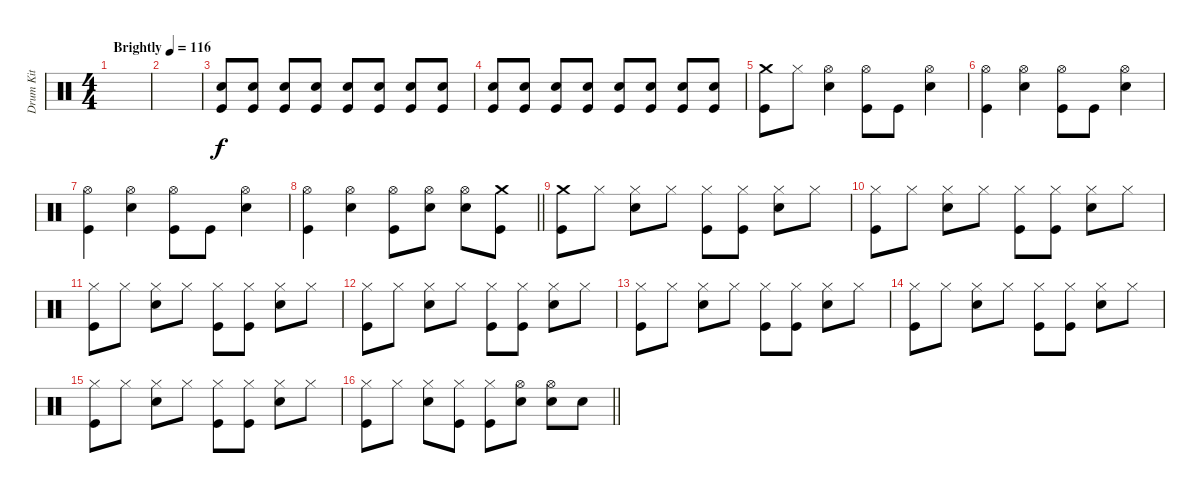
\track ("Drum Kit" "Drum Kit") {instrument percussion}
\staff {score}
\articulation defaults
\ts (4 4)
\tempo (116 "Brightly")
\clef neutral
\ks c
|
|
("Snare (hit) 2" "Kick (hit)").8{volume 10} ("Snare (hit) 2" "Kick (hit)").8 ("Snare (hit) 2" "Kick (hit)").8 ("Snare (hit) 2" "Kick (hit)").8 ("Snare (hit) 2" "Kick (hit)").8 ("Snare (hit) 2" "Kick (hit)").8 ("Snare (hit) 2" "Kick (hit)").8 ("Snare (hit) 2" "Kick (hit)").8 |
("Snare (hit) 2" "Kick (hit)").8 ("Snare (hit) 2" "Kick (hit)").8 ("Snare (hit) 2" "Kick (hit)").8 ("Snare (hit) 2" "Kick (hit)").8 ("Snare (hit) 2" "Kick (hit)").8 ("Snare (hit) 2" "Kick (hit)").8 ("Snare (hit) 2" "Kick (hit)").8 ("Snare (hit) 2" "Kick (hit)").8 |
("Crash medium (hit)" "Kick (hit)").8 "Hi-Hat (closed)".8 ("Hi-Hat (open)" "Snare (hit) 2").4 ("Hi-Hat (open)" "Kick (hit)").8 "Kick (hit)".8 ("Hi-Hat (open)" "Snare (hit) 2").4 |
("Hi-Hat (open)" "Kick (hit)").4 ("Hi-Hat (open)" "Snare (hit) 2").4 ("Hi-Hat (open)" "Kick (hit)").8 "Kick (hit)".8 ("Hi-Hat (open)" "Snare (hit) 2").4 |
("Hi-Hat (open)" "Kick (hit)").4 ("Hi-Hat (open)" "Snare (hit) 2").4 ("Hi-Hat (open)" "Kick (hit)").8 "Kick (hit)".8 ("Hi-Hat (open)" "Snare (hit) 2").4 |
\barLineRight lightlight
("Hi-Hat (open)" "Kick (hit)").4 ("Hi-Hat (open)" "Snare (hit) 2").4 ("Hi-Hat (open)" "Kick (hit)").8 ("Hi-Hat (open)" "Snare (hit) 2").8 ("Hi-Hat (open)" "Snare (hit) 2").8 ("Crash medium (hit)" "Kick (hit)").8 |
("Crash medium (hit)" "Kick (hit)").8 "Hi-Hat (closed)".8 ("Hi-Hat (closed)" "Snare (hit) 2").8 "Hi-Hat (closed)".8 ("Hi-Hat (closed)" "Kick (hit)").8 ("Hi-Hat (closed)" "Kick (hit)").8 ("Hi-Hat (closed)" "Snare (hit) 2").8 "Hi-Hat (closed)".8 |
("Hi-Hat (closed)" "Kick (hit)").8 "Hi-Hat (closed)".8 ("Hi-Hat (closed)" "Snare (hit) 2").8 "Hi-Hat (closed)".8 ("Hi-Hat (closed)" "Kick (hit)").8 ("Hi-Hat (closed)" "Kick (hit)").8 ("Hi-Hat (closed)" "Snare (hit) 2").8 "Hi-Hat (closed)".8 |
("Hi-Hat (closed)" "Kick (hit)").8 "Hi-Hat (closed)".8 ("Hi-Hat (closed)" "Snare (hit) 2").8 "Hi-Hat (closed)".8 ("Hi-Hat (closed)" "Kick (hit)").8 ("Hi-Hat (closed)" "Kick (hit)").8 ("Hi-Hat (closed)" "Snare (hit) 2").8 "Hi-Hat (closed)".8 |
("Hi-Hat (closed)" "Kick (hit)").8 "Hi-Hat (closed)".8 ("Hi-Hat (closed)" "Snare (hit) 2").8 "Hi-Hat (closed)".8 ("Hi-Hat (closed)" "Kick (hit)").8 ("Hi-Hat (closed)" "Kick (hit)").8 ("Hi-Hat (closed)" "Snare (hit) 2").8 "Hi-Hat (closed)".8 |
("Hi-Hat (closed)" "Kick (hit)").8 "Hi-Hat (closed)".8 ("Hi-Hat (closed)" "Snare (hit) 2").8 "Hi-Hat (closed)".8 ("Hi-Hat (closed)" "Kick (hit)").8 ("Hi-Hat (closed)" "Kick (hit)").8 ("Hi-Hat (closed)" "Snare (hit) 2").8 "Hi-Hat (closed)".8 |
("Hi-Hat (closed)" "Kick (hit)").8 "Hi-Hat (closed)".8 ("Hi-Hat (closed)" "Snare (hit) 2").8 "Hi-Hat (closed)".8 ("Hi-Hat (closed)" "Kick (hit)").8 ("Hi-Hat (closed)" "Kick (hit)").8 ("Hi-Hat (closed)" "Snare (hit) 2").8 "Hi-Hat (closed)".8 |
("Hi-Hat (closed)" "Kick (hit)").8 "Hi-Hat (closed)".8 ("Hi-Hat (closed)" "Snare (hit) 2").8 "Hi-Hat (closed)".8 ("Hi-Hat (closed)" "Kick (hit)").8 ("Hi-Hat (closed)" "Kick (hit)").8 ("Hi-Hat (closed)" "Snare (hit) 2").8 "Hi-Hat (closed)".8 |
\barLineRight lightlight
("Hi-Hat (closed)" "Kick (hit)").8 "Hi-Hat (closed)".8 ("Hi-Hat (closed)" "Snare (hit) 2").8 ("Hi-Hat (closed)" "Kick (hit)").8 ("Hi-Hat (closed)" "Kick (hit)").8 ("Hi-Hat (open)" "Snare (hit) 2").8 ("Hi-Hat (open)" "Snare (hit) 2").8 "Snare (hit) 2".8
